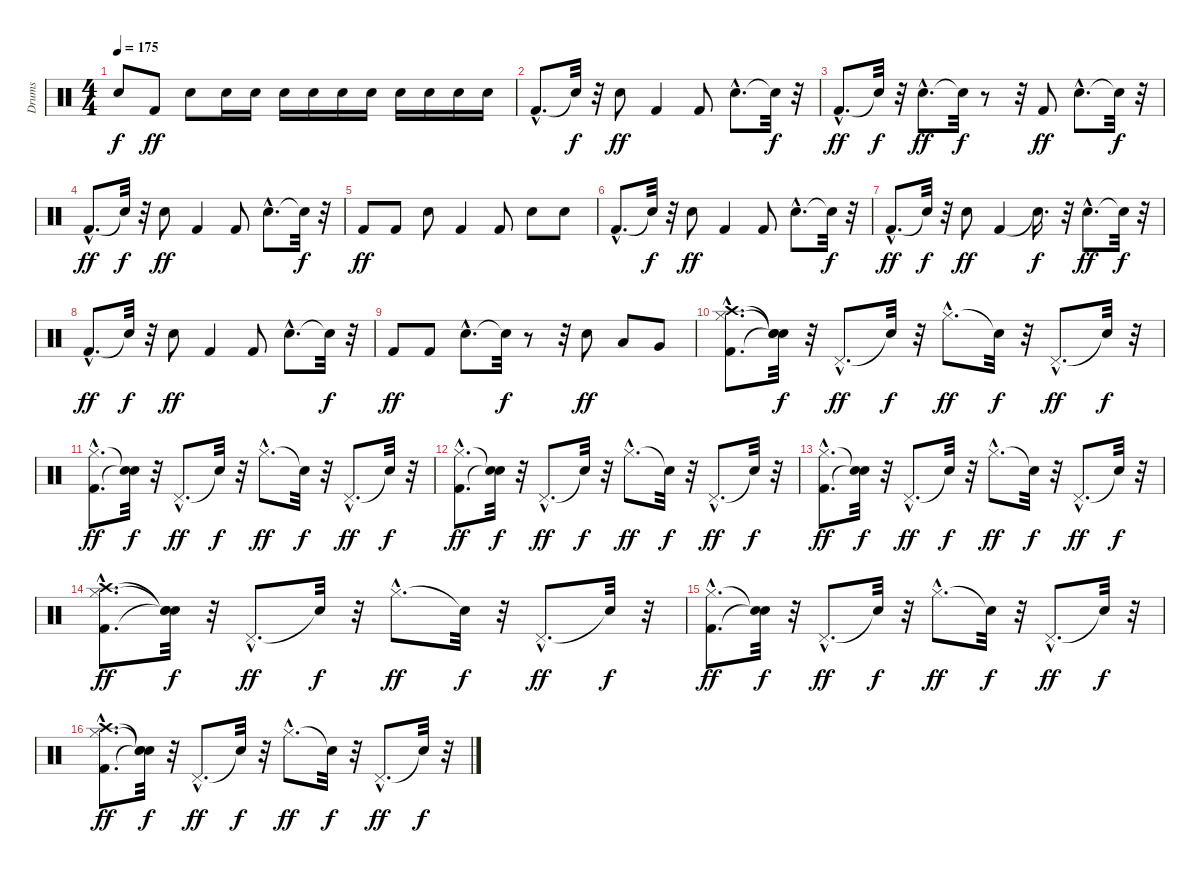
\track ("Drums" "Drums") {instrument percussion}
\staff {score}
\articulation defaults
\ts (4 4)
\tempo 175
\clef neutral
\ks c "Snare (hit)"{t}.8{dy f} "Kick (hit) 2".8{dy ff} "Electric Snare (hit)".8 "Electric Snare (hit)".16 "Electric Snare (hit)".16 "Electric Snare (hit)".16 "Electric Snare (hit)".16 "Electric Snare (hit)".16 "Electric Snare (hit)".16 "Electric Snare (hit)".16 "Electric Snare (hit)".16 "Electric Snare (hit)".16 "Electric Snare (hit)".16
|
"Kick (hit) 2"{hac}.8{d} "Snare (hit)"{t}.32{dy f} r.32 "Electric Snare (hit)".8{dy ff} "Kick (hit) 2".4 "Kick (hit) 2".8 "Electric Snare (hit)"{hac}.8{d} "Snare (hit)"{t}.32{dy f} r.32 |
"Kick (hit) 2"{hac}.8{d dy ff} "Snare (hit)"{t}.32{dy f} r.32 "Electric Snare (hit)"{hac}.8{d dy ff} "Snare (hit)"{t}.32{dy f} r.8 r.32 "Kick (hit) 2".8{dy ff} "Electric Snare (hit)"{hac}.8{d} "Snare (hit)"{t}.32{dy f} r.32 |
"Kick (hit) 2"{hac}.8{d dy ff} "Snare (hit)"{t}.32{dy f} r.32 "Electric Snare (hit)".8{dy ff} "Kick (hit) 2".4 "Kick (hit) 2".8 "Electric Snare (hit)"{hac}.8{d} "Snare (hit)"{t}.32{dy f} r.32 |
"Kick (hit) 2".8{dy ff} "Kick (hit) 2".8 "Electric Snare (hit)".8 "Kick (hit) 2".4 "Kick (hit) 2".8 "Electric Snare (hit)".8 "Electric Snare (hit)".8 |
"Kick (hit) 2"{hac}.8{d} "Snare (hit)"{t}.32{dy f} r.32 "Electric Snare (hit)".8{dy ff} "Kick (hit) 2".4 "Kick (hit) 2".8 "Electric Snare (hit)"{hac}.8{d} "Snare (hit)"{t}.32{dy f} r.32 |
"Kick (hit) 2"{hac}.8{d dy ff} "Snare (hit)"{t}.32{dy f} r.32 "Electric Snare (hit)".8{dy ff} "Kick (hit) 2".4 "Snare (hit)"{t}.16{d dy f} r.32 "Electric Snare (hit)"{hac}.8{d dy ff} "Snare (hit)"{t}.32{dy f} r.32 |
"Kick (hit) 2"{hac}.8{d dy ff} "Snare (hit)"{t}.32{dy f} r.32 "Electric Snare (hit)".8{dy ff} "Kick (hit) 2".4 "Kick (hit) 2".8 "Electric Snare (hit)"{hac}.8{d} "Snare (hit)"{t}.32{dy f} r.32 |
"Kick (hit) 2".8{dy ff} "Kick (hit) 2".8 "Electric Snare (hit)"{hac}.8{d} "Snare (hit)"{t}.32{dy f} r.8 r.32 "Electric Snare (hit)".8{dy ff} "Low Tom (hit)".8 "Very Low Tom (hit)".8 |
("Kick (hit) 2"{hac} "Hi-Hat (closed)"{hac} "Crash high (hit)"{hac}).8{d} ("Snare (hit)"{t} "Snare (hit)"{t} "Snare (hit)"{t}).32{dy f} r.32 "Pedal Hi-Hat (hit)"{hac}.8{d dy ff} "Snare (hit)"{t}.32{dy f} r.32 "Hi-Hat (closed)"{hac}.8{d dy ff} "Snare (hit)"{t}.32{dy f} r.32 "Pedal Hi-Hat (hit)"{hac}.8{d dy ff} "Snare (hit)"{t}.32{dy f} r.32 |
("Kick (hit) 2"{hac} "Hi-Hat (closed)"{hac}).8{d dy ff} ("Snare (hit)"{t} "Snare (hit)"{t}).32{dy f} r.32 "Pedal Hi-Hat (hit)"{hac}.8{d dy ff} "Snare (hit)"{t}.32{dy f} r.32 "Hi-Hat (closed)"{hac}.8{d dy ff} "Snare (hit)"{t}.32{dy f} r.32 "Pedal Hi-Hat (hit)"{hac}.8{d dy ff} "Snare (hit)"{t}.32{dy f} r.32 |
("Kick (hit) 2"{hac} "Hi-Hat (closed)"{hac}).8{d dy ff} ("Snare (hit)"{t} "Snare (hit)"{t}).32{dy f} r.32 "Pedal Hi-Hat (hit)"{hac}.8{d dy ff} "Snare (hit)"{t}.32{dy f} r.32 "Hi-Hat (closed)"{hac}.8{d dy ff} "Snare (hit)"{t}.32{dy f} r.32 "Pedal Hi-Hat (hit)"{hac}.8{d dy ff} "Snare (hit)"{t}.32{dy f} r.32 |
("Kick (hit) 2"{hac} "Hi-Hat (closed)"{hac}).8{d dy ff} ("Snare (hit)"{t} "Snare (hit)"{t}).32{dy f} r.32 "Pedal Hi-Hat (hit)"{hac}.8{d dy ff} "Snare (hit)"{t}.32{dy f} r.32 "Hi-Hat (closed)"{hac}.8{d dy ff} "Snare (hit)"{t}.32{dy f} r.32 "Pedal Hi-Hat (hit)"{hac}.8{d dy ff} "Snare (hit)"{t}.32{dy f} r.32 |
("Kick (hit) 2"{hac} "Hi-Hat (closed)"{hac} "Crash high (hit)"{hac}).8{d dy ff} ("Snare (hit)"{t} "Snare (hit)"{t} "Snare (hit)"{t}).32{dy f} r.32 "Pedal Hi-Hat (hit)"{hac}.8{d dy ff} "Snare (hit)"{t}.32{dy f} r.32 "Hi-Hat (closed)"{hac}.8{d dy ff} "Snare (hit)"{t}.32{dy f} r.32 "Pedal Hi-Hat (hit)"{hac}.8{d dy ff} "Snare (hit)"{t}.32{dy f} r.32 |
("Kick (hit) 2"{hac} "Hi-Hat (closed)"{hac}).8{d dy ff} ("Snare (hit)"{t} "Snare (hit)"{t}).32{dy f} r.32 "Pedal Hi-Hat (hit)"{hac}.8{d dy ff} "Snare (hit)"{t}.32{dy f} r.32 "Hi-Hat (closed)"{hac}.8{d dy ff} "Snare (hit)"{t}.32{dy f} r.32 "Pedal Hi-Hat (hit)"{hac}.8{d dy ff} "Snare (hit)"{t}.32{dy f} r.32 |
("Kick (hit) 2"{hac} "Hi-Hat (closed)"{hac} "Crash high (hit)"{hac}).8{d dy ff} ("Snare (hit)"{t} "Snare (hit)"{t} "Snare (hit)"{t}).32{dy f} r.32 "Pedal Hi-Hat (hit)"{hac}.8{d dy ff} "Snare (hit)"{t}.32{dy f} r.32 "Hi-Hat (closed)"{hac}.8{d dy ff} "Snare (hit)"{t}.32{dy f} r.32 "Pedal Hi-Hat (hit)"{hac}.8{d dy ff} "Snare (hit)"{t}.32{dy f} r.32
